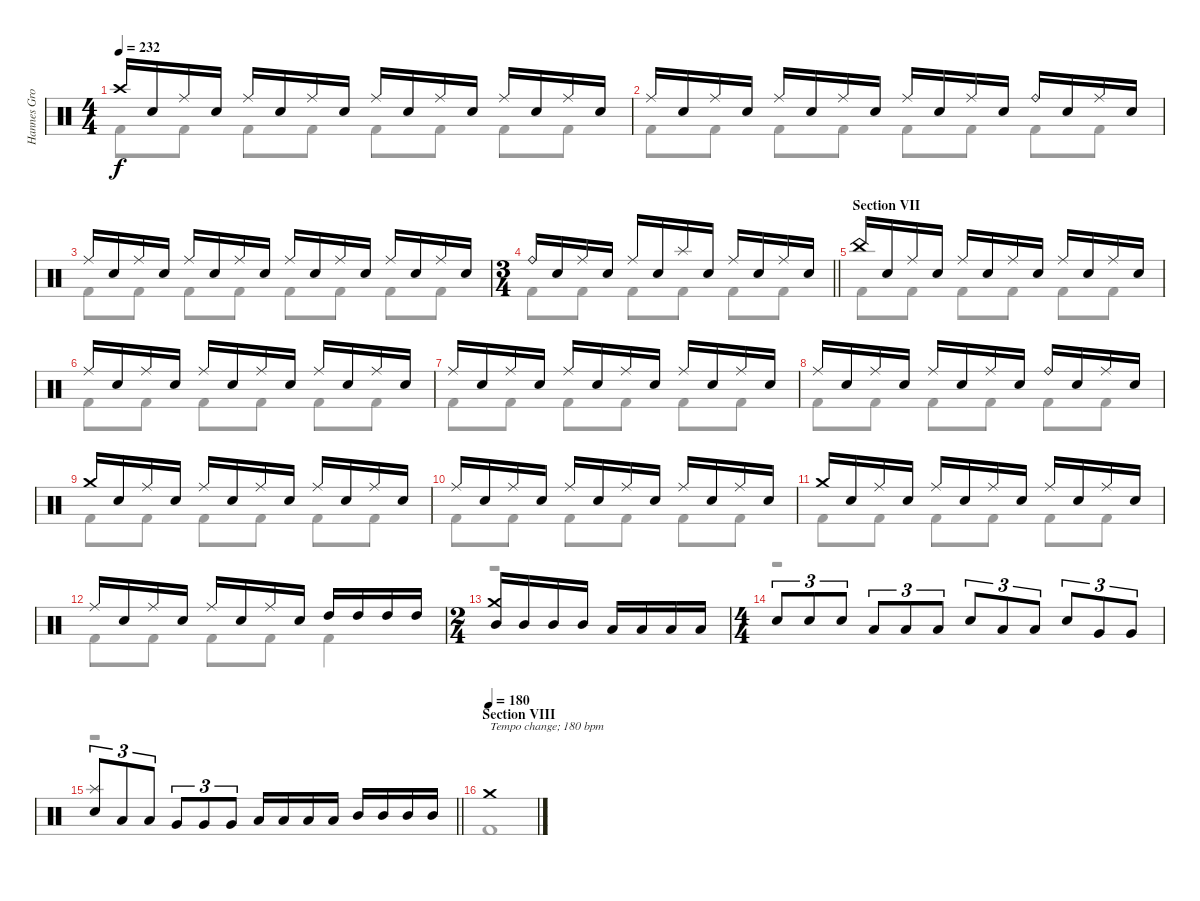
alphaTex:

\track ("Hannes Grossman" "Hannes Gro") {instrument percussion}
\staff {score}
\articulation defaults
\voice
\ts (4 4)
\tempo 232
\clef neutral
\ks c "Crash high (hit)".16{dy f} "Electric Snare (hit)".16 "Ride (middle)".16 "Electric Snare (hit)".16 "Ride (middle)".16 "Electric Snare (hit)".16 "Ride (middle)".16 "Electric Snare (hit)".16 "Ride (middle)".16 "Electric Snare (hit)".16 "Ride (middle)".16 "Electric Snare (hit)".16 "Ride (middle)".16 "Electric Snare (hit)".16 "Ride (middle)".16 "Electric Snare (hit)".16
|
"Ride (middle)".16 "Electric Snare (hit)".16 "Ride (middle)".16 "Electric Snare (hit)".16 "Ride (middle)".16 "Electric Snare (hit)".16 "Ride (middle)".16 "Electric Snare (hit)".16 "Ride (middle)".16 "Electric Snare (hit)".16 "Ride (middle)".16 "Electric Snare (hit)".16 "Ride (bell)".16 "Electric Snare (hit)".16 "Ride (middle)".16 "Electric Snare (hit)".16 |
"Ride (middle)".16 "Electric Snare (hit)".16 "Ride (middle)".16 "Electric Snare (hit)".16 "Ride (middle)".16 "Electric Snare (hit)".16 "Ride (middle)".16 "Electric Snare (hit)".16 "Ride (middle)".16 "Electric Snare (hit)".16 "Ride (middle)".16 "Electric Snare (hit)".16 "Ride (middle)".16 "Electric Snare (hit)".16 "Ride (middle)".16 "Electric Snare (hit)".16 |
\ts (3 4)
\barLineRight lightlight "Ride (bell)".16 "Electric Snare (hit)".16 "Ride (middle)".16 "Electric Snare (hit)".16 "Ride (middle)".16 "Electric Snare (hit)".16 "Splash (hit)".16 "Electric Snare (hit)".16 "Ride (middle)".16 "Electric Snare (hit)".16 "Ride (middle)".16 "Electric Snare (hit)".16
|
\section ("" "Section VII")
"China (hit)".16 "Electric Snare (hit)".16 "Ride (middle)".16 "Electric Snare (hit)".16 "Ride (middle)".16 "Electric Snare (hit)".16 "Ride (middle)".16 "Electric Snare (hit)".16 "Ride (middle)".16 "Electric Snare (hit)".16 "Ride (middle)".16 "Electric Snare (hit)".16 |
"Ride (middle)".16 "Electric Snare (hit)".16 "Ride (middle)".16 "Electric Snare (hit)".16 "Ride (middle)".16 "Electric Snare (hit)".16 "Ride (middle)".16 "Electric Snare (hit)".16 "Ride (middle)".16 "Electric Snare (hit)".16 "Ride (middle)".16 "Electric Snare (hit)".16 |
"Ride (middle)".16 "Electric Snare (hit)".16 "Ride (middle)".16 "Electric Snare (hit)".16 "Ride (middle)".16 "Electric Snare (hit)".16 "Ride (middle)".16 "Electric Snare (hit)".16 "Ride (middle)".16 "Electric Snare (hit)".16 "Ride (middle)".16 "Electric Snare (hit)".16 |
"Ride (middle)".16 "Electric Snare (hit)".16 "Ride (middle)".16 "Electric Snare (hit)".16 "Ride (middle)".16 "Electric Snare (hit)".16 "Ride (middle)".16 "Electric Snare (hit)".16 "Ride (bell)".16 "Electric Snare (hit)".16 "Ride (middle)".16 "Electric Snare (hit)".16 |
"Crash medium (hit)".16 "Electric Snare (hit)".16 "Ride (middle)".16 "Electric Snare (hit)".16 "Ride (middle)".16 "Electric Snare (hit)".16 "Ride (middle)".16 "Electric Snare (hit)".16 "Ride (middle)".16 "Electric Snare (hit)".16 "Ride (middle)".16 "Electric Snare (hit)".16 |
"Ride (middle)".16 "Electric Snare (hit)".16 "Ride (middle)".16 "Electric Snare (hit)".16 "Ride (middle)".16 "Electric Snare (hit)".16 "Ride (middle)".16 "Electric Snare (hit)".16 "Ride (middle)".16 "Electric Snare (hit)".16 "Ride (middle)".16 "Electric Snare (hit)".16 |
"Crash medium (hit)".16 "Electric Snare (hit)".16 "Ride (middle)".16 "Electric Snare (hit)".16 "Ride (middle)".16 "Electric Snare (hit)".16 "Ride (middle)".16 "Electric Snare (hit)".16 "Ride (middle)".16 "Electric Snare (hit)".16 "Ride (middle)".16 "Electric Snare (hit)".16 |
"Ride (middle)".16 "Electric Snare (hit)".16 "Ride (middle)".16 "Electric Snare (hit)".16 "Ride (middle)".16 "Electric Snare (hit)".16 "Ride (middle)".16 "Electric Snare (hit)".16 "High Tom (hit)".16 "High Tom (hit)".16 "High Tom (hit)".16 "High Tom (hit)".16 |
\ts (2 4)
("Mid Tom (hit)" "Crash medium (hit)").16 "Mid Tom (hit)".16 "Mid Tom (hit)".16 "Mid Tom (hit)".16 "Low Tom (hit)".16 "Low Tom (hit)".16 "Low Tom (hit)".16 "Low Tom (hit)".16 |
\ts (4 4)
"Electric Snare (hit)".8{tu (3 2)} "Electric Snare (hit)".8{tu (3 2)} "Electric Snare (hit)".8{tu (3 2)} "Low Tom (hit)".8{tu (3 2)} "Low Tom (hit)".8{tu (3 2)} "Low Tom (hit)".8{tu (3 2)} "Electric Snare (hit)".8{tu (3 2)} "Low Tom (hit)".8{tu (3 2)} "Low Tom (hit)".8{tu (3 2)} "Electric Snare (hit)".8{tu (3 2)} "Very Low Tom (hit)".8{tu (3 2)} "Very Low Tom (hit)".8{tu (3 2)} |
\barLineRight lightlight
("Splash (hit)" "Electric Snare (hit)").8{tu (3 2)} "Low Tom (hit)".8{tu (3 2)} "Low Tom (hit)".8{tu (3 2)} "Very Low Tom (hit)".8{tu (3 2)} "Very Low Tom (hit)".8{tu (3 2)} "Very Low Tom (hit)".8{tu (3 2)} "Low Tom (hit)".16 "Low Tom (hit)".16 "Low Tom (hit)".16 "Low Tom (hit)".16 "Mid Tom (hit)".16 "Mid Tom (hit)".16 "Mid Tom (hit)".16 "Mid Tom (hit)".16 |
\section ("" "Section VIII")
\tempo (180)
"Crash medium (hit)".1{txt "Tempo change; 180 bpm"}
\voice
\clef neutral
\ottava regular
\simile none
\ks c "Kick (hit) 2".8{dy f} "Kick (hit) 2".8 "Kick (hit) 2".8 "Kick (hit) 2".8 "Kick (hit) 2".8 "Kick (hit) 2".8 "Kick (hit) 2".8 "Kick (hit) 2".8
|
"Kick (hit) 2".8 "Kick (hit) 2".8 "Kick (hit) 2".8 "Kick (hit) 2".8 "Kick (hit) 2".8 "Kick (hit) 2".8 "Kick (hit) 2".8 "Kick (hit) 2".8 |
"Kick (hit) 2".8 "Kick (hit) 2".8 "Kick (hit) 2".8 "Kick (hit) 2".8 "Kick (hit) 2".8 "Kick (hit) 2".8 "Kick (hit) 2".8 "Kick (hit) 2".8 |
\barLineRight lightlight "Kick (hit) 2".8 "Kick (hit) 2".8 "Kick (hit) 2".8 "Kick (hit) 2".8 "Kick (hit) 2".8 "Kick (hit) 2".8
|
"Kick (hit) 2".8 "Kick (hit) 2".8 "Kick (hit) 2".8 "Kick (hit) 2".8 "Kick (hit) 2".8 "Kick (hit) 2".8 |
"Kick (hit) 2".8 "Kick (hit) 2".8 "Kick (hit) 2".8 "Kick (hit) 2".8 "Kick (hit) 2".8 "Kick (hit) 2".8 |
"Kick (hit) 2".8 "Kick (hit) 2".8 "Kick (hit) 2".8 "Kick (hit) 2".8 "Kick (hit) 2".8 "Kick (hit) 2".8 |
"Kick (hit) 2".8 "Kick (hit) 2".8 "Kick (hit) 2".8 "Kick (hit) 2".8 "Kick (hit) 2".8 "Kick (hit) 2".8 |
"Kick (hit) 2".8 "Kick (hit) 2".8 "Kick (hit) 2".8 "Kick (hit) 2".8 "Kick (hit) 2".8 "Kick (hit) 2".8 |
"Kick (hit) 2".8 "Kick (hit) 2".8 "Kick (hit) 2".8 "Kick (hit) 2".8 "Kick (hit) 2".8 "Kick (hit) 2".8 |
"Kick (hit) 2".8 "Kick (hit) 2".8 "Kick (hit) 2".8 "Kick (hit) 2".8 "Kick (hit) 2".8 "Kick (hit) 2".8 |
"Kick (hit) 2".8 "Kick (hit) 2".8 "Kick (hit) 2".8 "Kick (hit) 2".8 "Kick (hit) 2".4 |
r.2 |
r.1 |
\barLineRight lightlight
r.1 |
"Kick (hit) 2".1
